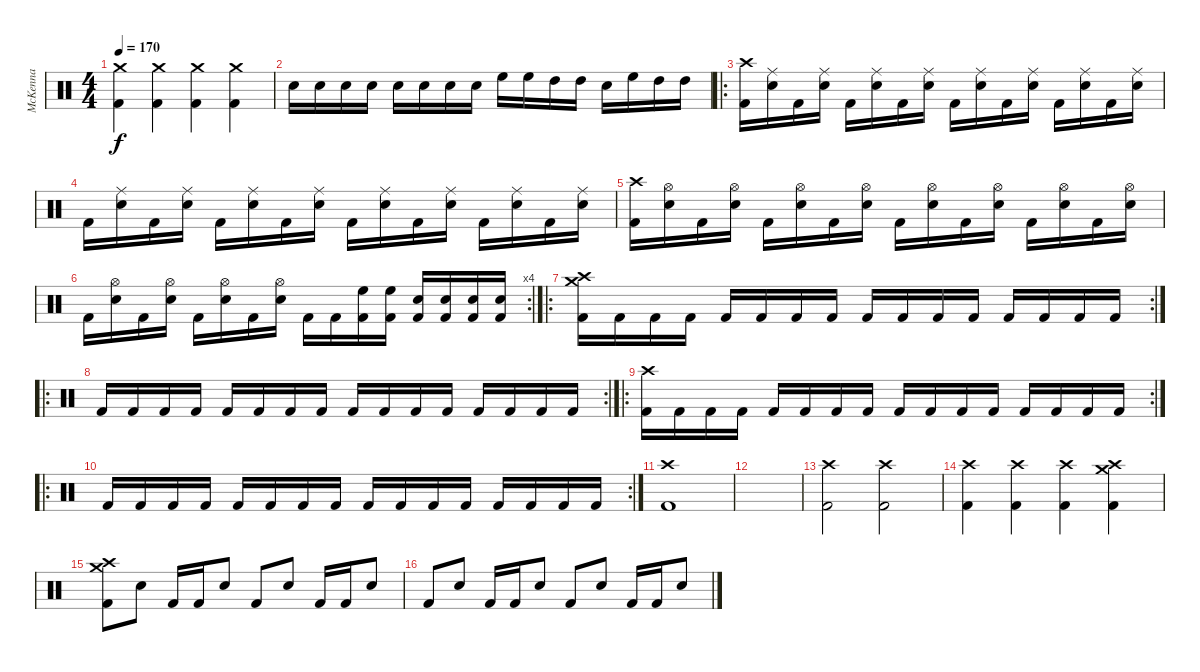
\track ("McKenna" "McKenna") {instrument percussion}
\staff {score}
\articulation defaults
\ts (4 4)
\tempo 170
\clef neutral
\ks c
("Kick (hit) 2" "Crash medium (hit)").4{dy f} ("Kick (hit) 2" "Crash medium (hit)").4 ("Kick (hit) 2" "Crash medium (hit)").4 ("Kick (hit) 2" "Crash medium (hit)").4 |
"Snare (hit) 2".16 "Snare (hit) 2".16 "Snare (hit) 2".16 "Snare (hit) 2".16 "Snare (hit) 2".16 "Snare (hit) 2".16 "Snare (hit) 2".16 "Snare (hit) 2".16 "High Floor Tom (hit)".16 "High Floor Tom (hit)".16 "High Tom (hit)".16 "High Tom (hit)".16 "Snare (hit) 2".16 "High Floor Tom (hit)".16 "High Tom (hit)".16 "High Tom (hit)".16 |
\ro
("Crash high (hit)" "Kick (hit) 2").16 ("Ride (middle)" "Snare (hit) 2").16 "Kick (hit) 2".16 ("Ride (middle)" "Snare (hit) 2").16 "Kick (hit) 2".16 ("Ride (middle)" "Snare (hit) 2").16 "Kick (hit) 2".16 ("Ride (middle)" "Snare (hit) 2").16 "Kick (hit) 2".16 ("Ride (middle)" "Snare (hit) 2").16 "Kick (hit) 2".16 ("Ride (middle)" "Snare (hit) 2").16 "Kick (hit) 2".16 ("Ride (middle)" "Snare (hit) 2").16 "Kick (hit) 2".16 ("Ride (middle)" "Snare (hit) 2").16 |
"Kick (hit) 2".16 ("Ride (middle)" "Snare (hit) 2").16 "Kick (hit) 2".16 ("Ride (middle)" "Snare (hit) 2").16 "Kick (hit) 2".16 ("Ride (middle)" "Snare (hit) 2").16 "Kick (hit) 2".16 ("Ride (middle)" "Snare (hit) 2").16 "Kick (hit) 2".16 ("Ride (middle)" "Snare (hit) 2").16 "Kick (hit) 2".16 ("Ride (middle)" "Snare (hit) 2").16 "Kick (hit) 2".16 ("Ride (middle)" "Snare (hit) 2").16 "Kick (hit) 2".16 ("Ride (middle)" "Snare (hit) 2").16 |
("Crash high (hit)" "Kick (hit) 2").16 ("Hi-Hat (open)" "Snare (hit) 2").16 "Kick (hit) 2".16 ("Hi-Hat (open)" "Snare (hit) 2").16 "Kick (hit) 2".16 ("Hi-Hat (open)" "Snare (hit) 2").16 "Kick (hit) 2".16 ("Hi-Hat (open)" "Snare (hit) 2").16 "Kick (hit) 2".16 ("Hi-Hat (open)" "Snare (hit) 2").16 "Kick (hit) 2".16 ("Hi-Hat (open)" "Snare (hit) 2").16 "Kick (hit) 2".16 ("Hi-Hat (open)" "Snare (hit) 2").16 "Kick (hit) 2".16 ("Hi-Hat (open)" "Snare (hit) 2").16 |
\rc 4 "Kick (hit) 2".16
("Hi-Hat (open)" "Snare (hit) 2").16 "Kick (hit) 2".16 ("Hi-Hat (open)" "Snare (hit) 2").16 "Kick (hit) 2".16 ("Hi-Hat (open)" "Snare (hit) 2").16 "Kick (hit) 2".16 ("Hi-Hat (open)" "Snare (hit) 2").16 "Kick (hit) 2".16 "Kick (hit) 2".16 ("High Floor Tom (hit)" "Kick (hit) 2").16 ("High Floor Tom (hit)" "Kick (hit) 2").16 ("Snare (hit) 2" "Kick (hit) 2").16 ("Snare (hit) 2" "Kick (hit) 2").16 ("Snare (hit) 2" "Kick (hit) 2").16 ("Snare (hit) 2" "Kick (hit) 2").16 |
\ro
\rc 2
("Crash medium (hit)" "Crash high (hit)" "Kick (hit) 2").16 "Kick (hit) 2".16 "Kick (hit) 2".16 "Kick (hit) 2".16 "Kick (hit) 2".16 "Kick (hit) 2".16 "Kick (hit) 2".16 "Kick (hit) 2".16 "Kick (hit) 2".16 "Kick (hit) 2".16 "Kick (hit) 2".16 "Kick (hit) 2".16 "Kick (hit) 2".16 "Kick (hit) 2".16 "Kick (hit) 2".16 "Kick (hit) 2".16 |
\ro
\rc 2 "Kick (hit) 2".16 "Kick (hit) 2".16 "Kick (hit) 2".16 "Kick (hit) 2".16 "Kick (hit) 2".16 "Kick (hit) 2".16 "Kick (hit) 2".16 "Kick (hit) 2".16 "Kick (hit) 2".16 "Kick (hit) 2".16 "Kick (hit) 2".16 "Kick (hit) 2".16 "Kick (hit) 2".16 "Kick (hit) 2".16 "Kick (hit) 2".16 "Kick (hit) 2".16
|
\ro
\rc 2
("Crash high (hit)" "Kick (hit) 2").16 "Kick (hit) 2".16 "Kick (hit) 2".16 "Kick (hit) 2".16 "Kick (hit) 2".16 "Kick (hit) 2".16 "Kick (hit) 2".16 "Kick (hit) 2".16 "Kick (hit) 2".16 "Kick (hit) 2".16 "Kick (hit) 2".16 "Kick (hit) 2".16 "Kick (hit) 2".16 "Kick (hit) 2".16 "Kick (hit) 2".16 "Kick (hit) 2".16 |
\ro
\rc 2 "Kick (hit) 2".16 "Kick (hit) 2".16 "Kick (hit) 2".16 "Kick (hit) 2".16 "Kick (hit) 2".16 "Kick (hit) 2".16 "Kick (hit) 2".16 "Kick (hit) 2".16 "Kick (hit) 2".16 "Kick (hit) 2".16 "Kick (hit) 2".16 "Kick (hit) 2".16 "Kick (hit) 2".16 "Kick (hit) 2".16 "Kick (hit) 2".16 "Kick (hit) 2".16
|
("Crash high (hit)" "Kick (hit) 2").1 |
|
("Crash high (hit)" "Kick (hit) 2").2 ("Crash high (hit)" "Kick (hit) 2").2 |
("Crash high (hit)" "Kick (hit) 2").4 ("Crash high (hit)" "Kick (hit) 2").4 ("Crash high (hit)" "Kick (hit) 2").4 ("Crash medium (hit)" "Crash high (hit)" "Kick (hit) 2").4 |
("Crash medium (hit)" "Crash high (hit)" "Kick (hit) 2").8 "Snare (hit) 2".8 "Kick (hit) 2".16 "Kick (hit) 2".16 "Snare (hit) 2".8 "Kick (hit) 2".8 "Snare (hit) 2".8 "Kick (hit) 2".16 "Kick (hit) 2".16 "Snare (hit) 2".8 |
"Kick (hit) 2".8 "Snare (hit) 2".8 "Kick (hit) 2".16 "Kick (hit) 2".16 "Snare (hit) 2".8 "Kick (hit) 2".8 "Snare (hit) 2".8 "Kick (hit) 2".16 "Kick (hit) 2".16 "Snare (hit) 2".8
